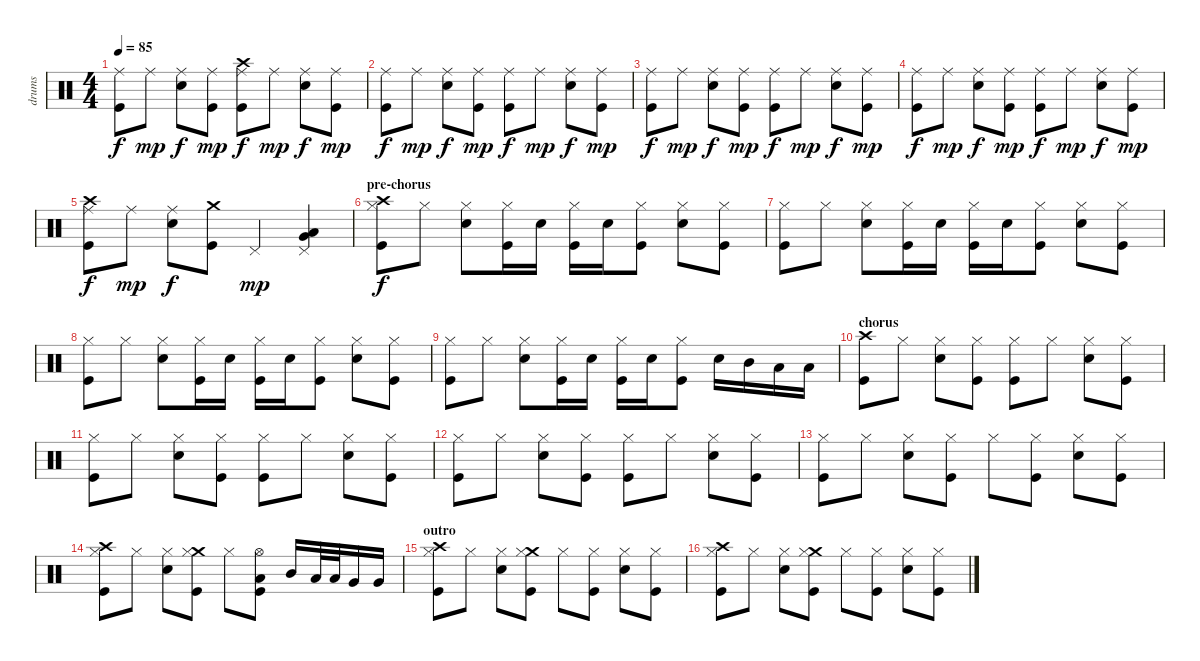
\track ("drums" "drums") {instrument percussion}
\staff {score}
\articulation defaults
\ts (4 4)
\tempo 85
\clef neutral
\ks c
("Ride (middle)" "Kick (hit)").8{dy f} "Ride (middle)".8{dy mp} ("Ride (middle)" "Snare (hit) 2").8{dy f} ("Ride (middle)" "Kick (hit)").8{dy mp} ("Crash high (hit)" "Ride (middle)" "Kick (hit)").8{dy f} "Ride (middle)".8{dy mp} ("Ride (middle)" "Snare (hit) 2").8{dy f} ("Ride (middle)" "Kick (hit)").8{dy mp} |
("Ride (middle)" "Kick (hit)").8{dy f} "Ride (middle)".8{dy mp} ("Ride (middle)" "Snare (hit) 2").8{dy f} ("Ride (middle)" "Kick (hit)").8{dy mp} ("Ride (middle)" "Kick (hit)").8{dy f} "Ride (middle)".8{dy mp} ("Ride (middle)" "Snare (hit) 2").8{dy f} ("Ride (middle)" "Kick (hit)").8{dy mp} |
("Ride (middle)" "Kick (hit)").8{dy f} "Ride (middle)".8{dy mp} ("Ride (middle)" "Snare (hit) 2").8{dy f} ("Ride (middle)" "Kick (hit)").8{dy mp} ("Ride (middle)" "Kick (hit)").8{dy f} "Ride (middle)".8{dy mp} ("Ride (middle)" "Snare (hit) 2").8{dy f} ("Ride (middle)" "Kick (hit)").8{dy mp} |
("Ride (middle)" "Kick (hit)").8{dy f} "Ride (middle)".8{dy mp} ("Ride (middle)" "Snare (hit) 2").8{dy f} ("Ride (middle)" "Kick (hit)").8{dy mp} ("Ride (middle)" "Kick (hit)").8{dy f} "Ride (middle)".8{dy mp} ("Ride (middle)" "Snare (hit) 2").8{dy f} ("Ride (middle)" "Kick (hit)").8{dy mp} |
("Crash high (hit)" "Ride (middle)" "Kick (hit)").8{dy f} "Ride (middle)".8{dy mp} ("Ride (middle)" "Snare (hit) 2").8{dy f} ("Crash medium (hit)" "Kick (hit)").8 "Pedal Hi-Hat (hit)".4{dy mp} ("Pedal Hi-Hat (hit)" "Low Floor Tom (hit)" "Very Low Tom (hit)").4 |
\section ("" "pre-chorus")
("Crash high (hit)" "Hi-Hat (closed)" "Kick (hit)").8{dy f} "Hi-Hat (closed)".8 ("Hi-Hat (closed)" "Snare (hit) 2").8 ("Hi-Hat (closed)" "Kick (hit)").16 "Snare (hit) 2".16 ("Hi-Hat (closed)" "Kick (hit)").16 "Snare (hit) 2".16 ("Hi-Hat (closed)" "Kick (hit)").8 ("Hi-Hat (closed)" "Snare (hit) 2").8 ("Hi-Hat (closed)" "Kick (hit)").8 |
("Hi-Hat (closed)" "Kick (hit)").8 "Hi-Hat (closed)".8 ("Hi-Hat (closed)" "Snare (hit) 2").8 ("Hi-Hat (closed)" "Kick (hit)").16 "Snare (hit) 2".16 ("Hi-Hat (closed)" "Kick (hit)").16 "Snare (hit) 2".16 ("Hi-Hat (closed)" "Kick (hit)").8 ("Hi-Hat (closed)" "Snare (hit) 2").8 ("Hi-Hat (closed)" "Kick (hit)").8 |
("Hi-Hat (closed)" "Kick (hit)").8 "Hi-Hat (closed)".8 ("Hi-Hat (closed)" "Snare (hit) 2").8 ("Hi-Hat (closed)" "Kick (hit)").16 "Snare (hit) 2".16 ("Hi-Hat (closed)" "Kick (hit)").16 "Snare (hit) 2".16 ("Hi-Hat (closed)" "Kick (hit)").8 ("Hi-Hat (closed)" "Snare (hit) 2").8 ("Hi-Hat (closed)" "Kick (hit)").8 |
("Hi-Hat (closed)" "Kick (hit)").8 "Hi-Hat (closed)".8 ("Hi-Hat (closed)" "Snare (hit) 2").8 ("Hi-Hat (closed)" "Kick (hit)").16 "Snare (hit) 2".16 ("Hi-Hat (closed)" "Kick (hit)").16 "Snare (hit) 2".16 ("Hi-Hat (closed)" "Kick (hit)").8 "Snare (hit) 2".16 "Mid Tom (hit)".16 "Low Tom (hit)".16 "Low Tom (hit)".16 |
\section ("" "chorus")
("Crash high (hit)" "Kick (hit)").8 "Hi-Hat (closed)".8 ("Hi-Hat (closed)" "Snare (hit) 2").8 ("Hi-Hat (closed)" "Kick (hit)").8 ("Hi-Hat (closed)" "Kick (hit)").8 "Hi-Hat (closed)".8 ("Hi-Hat (closed)" "Snare (hit) 2").8 ("Hi-Hat (closed)" "Kick (hit)").8 |
("Hi-Hat (closed)" "Kick (hit)").8 "Hi-Hat (closed)".8 ("Hi-Hat (closed)" "Snare (hit) 2").8 ("Hi-Hat (closed)" "Kick (hit)").8 ("Hi-Hat (closed)" "Kick (hit)").8 "Hi-Hat (closed)".8 ("Hi-Hat (closed)" "Snare (hit) 2").8 ("Hi-Hat (closed)" "Kick (hit)").8 |
("Hi-Hat (closed)" "Kick (hit)").8 "Hi-Hat (closed)".8 ("Hi-Hat (closed)" "Snare (hit) 2").8 ("Hi-Hat (closed)" "Kick (hit)").8 ("Hi-Hat (closed)" "Kick (hit)").8 "Hi-Hat (closed)".8 ("Hi-Hat (closed)" "Snare (hit) 2").8 ("Hi-Hat (closed)" "Kick (hit)").8 |
("Hi-Hat (closed)" "Kick (hit)").8 "Hi-Hat (closed)".8 ("Hi-Hat (closed)" "Snare (hit) 2").8 ("Hi-Hat (closed)" "Kick (hit)").8 "Hi-Hat (closed)".8 ("Hi-Hat (closed)" "Kick (hit)").8 ("Hi-Hat (closed)" "Snare (hit) 2").8 ("Hi-Hat (closed)" "Kick (hit)").8 |
("Crash high (hit)" "Hi-Hat (closed)" "Kick (hit)").8 "Hi-Hat (closed)".8 ("Hi-Hat (closed)" "Snare (hit) 2").8 ("Crash medium (hit)" "Hi-Hat (closed)" "Kick (hit)").8 "Hi-Hat (closed)".8 ("Hi-Hat (open)" "Low Floor Tom (hit)" "Kick (hit)").8 "Mid Tom (hit)".16 "Low Tom (hit)".32 "Low Tom (hit)".32 "Very Low Tom (hit)".16 "Very Low Tom (hit)".16 |
\section ("" "outro")
("Crash high (hit)" "Hi-Hat (closed)" "Kick (hit)").8 "Hi-Hat (closed)".8 ("Hi-Hat (closed)" "Snare (hit) 2").8 ("Crash medium (hit)" "Hi-Hat (closed)" "Kick (hit)").8 "Hi-Hat (closed)".8 ("Hi-Hat (closed)" "Kick (hit)").8 ("Hi-Hat (closed)" "Snare (hit) 2").8 ("Hi-Hat (closed)" "Kick (hit)").8 |
("Crash high (hit)" "Hi-Hat (closed)" "Kick (hit)").8 "Hi-Hat (closed)".8 ("Hi-Hat (closed)" "Snare (hit) 2").8 ("Crash medium (hit)" "Hi-Hat (closed)" "Kick (hit)").8 "Hi-Hat (closed)".8 ("Hi-Hat (closed)" "Kick (hit)").8 ("Hi-Hat (closed)" "Snare (hit) 2").8 ("Hi-Hat (closed)" "Kick (hit)").8
